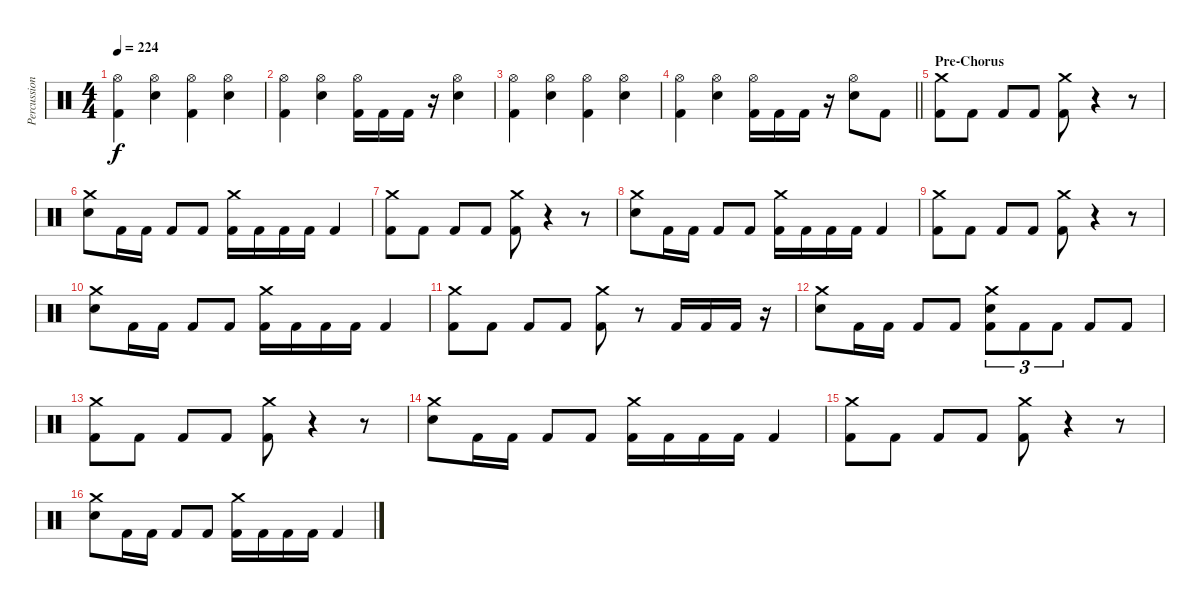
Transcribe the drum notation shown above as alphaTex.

\track ("Percussion" "Percussion") {instrument percussion}
\staff {score}
\articulation defaults
\ts (4 4)
\tempo 224
\clef neutral
\ks c
("Kick (hit) 2" "Hi-Hat (open)").4{dy f} ("Snare (hit) 2" "Hi-Hat (open)").4 ("Kick (hit) 2" "Hi-Hat (open)").4 ("Snare (hit) 2" "Hi-Hat (open)").4 |
("Kick (hit) 2" "Hi-Hat (open)").4 ("Snare (hit) 2" "Hi-Hat (open)").4 ("Kick (hit) 2" "Hi-Hat (open)").16 "Kick (hit) 2".16 "Kick (hit) 2".16 r.16 ("Snare (hit) 2" "Hi-Hat (open)").4 |
("Kick (hit) 2" "Hi-Hat (open)").4 ("Snare (hit) 2" "Hi-Hat (open)").4 ("Kick (hit) 2" "Hi-Hat (open)").4 ("Snare (hit) 2" "Hi-Hat (open)").4 |
\barLineRight lightlight
("Kick (hit) 2" "Hi-Hat (open)").4 ("Snare (hit) 2" "Hi-Hat (open)").4 ("Kick (hit) 2" "Hi-Hat (open)").16 "Kick (hit) 2".16 "Kick (hit) 2".16 r.16 ("Snare (hit) 2" "Hi-Hat (open)").8 "Kick (hit) 2".8 |
\section ("" "Pre-Chorus")
("Kick (hit) 2" "Crash medium (hit)").8 "Kick (hit) 2".8 "Kick (hit) 2".8 "Kick (hit) 2".8 ("Kick (hit) 2" "Crash medium (hit)").8 r.4 r.8 |
("Snare (hit) 2" "Crash medium (hit)").8 "Kick (hit) 2".16 "Kick (hit) 2".16 "Kick (hit) 2".8 "Kick (hit) 2".8 ("Kick (hit) 2" "Crash medium (hit)").16 "Kick (hit) 2".16 "Kick (hit) 2".16 "Kick (hit) 2".16 "Kick (hit) 2".4 |
("Kick (hit) 2" "Crash medium (hit)").8 "Kick (hit) 2".8 "Kick (hit) 2".8 "Kick (hit) 2".8 ("Kick (hit) 2" "Crash medium (hit)").8 r.4 r.8 |
("Snare (hit) 2" "Crash medium (hit)").8 "Kick (hit) 2".16 "Kick (hit) 2".16 "Kick (hit) 2".8 "Kick (hit) 2".8 ("Kick (hit) 2" "Crash medium (hit)").16 "Kick (hit) 2".16 "Kick (hit) 2".16 "Kick (hit) 2".16 "Kick (hit) 2".4 |
("Kick (hit) 2" "Crash medium (hit)").8 "Kick (hit) 2".8 "Kick (hit) 2".8 "Kick (hit) 2".8 ("Kick (hit) 2" "Crash medium (hit)").8 r.4 r.8 |
("Snare (hit) 2" "Crash medium (hit)").8 "Kick (hit) 2".16 "Kick (hit) 2".16 "Kick (hit) 2".8 "Kick (hit) 2".8 ("Kick (hit) 2" "Crash medium (hit)").16 "Kick (hit) 2".16 "Kick (hit) 2".16 "Kick (hit) 2".16 "Kick (hit) 2".4 |
("Kick (hit) 2" "Crash medium (hit)").8 "Kick (hit) 2".8 "Kick (hit) 2".8 "Kick (hit) 2".8 ("Kick (hit) 2" "Crash medium (hit)").8 r.8 "Kick (hit) 2".16 "Kick (hit) 2".16 "Kick (hit) 2".16 r.16 |
("Snare (hit) 2" "Crash medium (hit)").8 "Kick (hit) 2".16 "Kick (hit) 2".16 "Kick (hit) 2".8 "Kick (hit) 2".8 ("Kick (hit) 2" "Snare (hit) 2" "Crash medium (hit)").8{tu (3 2)} "Kick (hit) 2".8{tu (3 2)} "Kick (hit) 2".8{tu (3 2)} "Kick (hit) 2".8 "Kick (hit) 2".8 |
("Kick (hit) 2" "Crash medium (hit)").8 "Kick (hit) 2".8 "Kick (hit) 2".8 "Kick (hit) 2".8 ("Kick (hit) 2" "Crash medium (hit)").8 r.4 r.8 |
("Snare (hit) 2" "Crash medium (hit)").8 "Kick (hit) 2".16 "Kick (hit) 2".16 "Kick (hit) 2".8 "Kick (hit) 2".8 ("Kick (hit) 2" "Crash medium (hit)").16 "Kick (hit) 2".16 "Kick (hit) 2".16 "Kick (hit) 2".16 "Kick (hit) 2".4 |
("Kick (hit) 2" "Crash medium (hit)").8 "Kick (hit) 2".8 "Kick (hit) 2".8 "Kick (hit) 2".8 ("Kick (hit) 2" "Crash medium (hit)").8 r.4 r.8 |
("Snare (hit) 2" "Crash medium (hit)").8 "Kick (hit) 2".16 "Kick (hit) 2".16 "Kick (hit) 2".8 "Kick (hit) 2".8 ("Kick (hit) 2" "Crash medium (hit)").16 "Kick (hit) 2".16 "Kick (hit) 2".16 "Kick (hit) 2".16 "Kick (hit) 2".4
